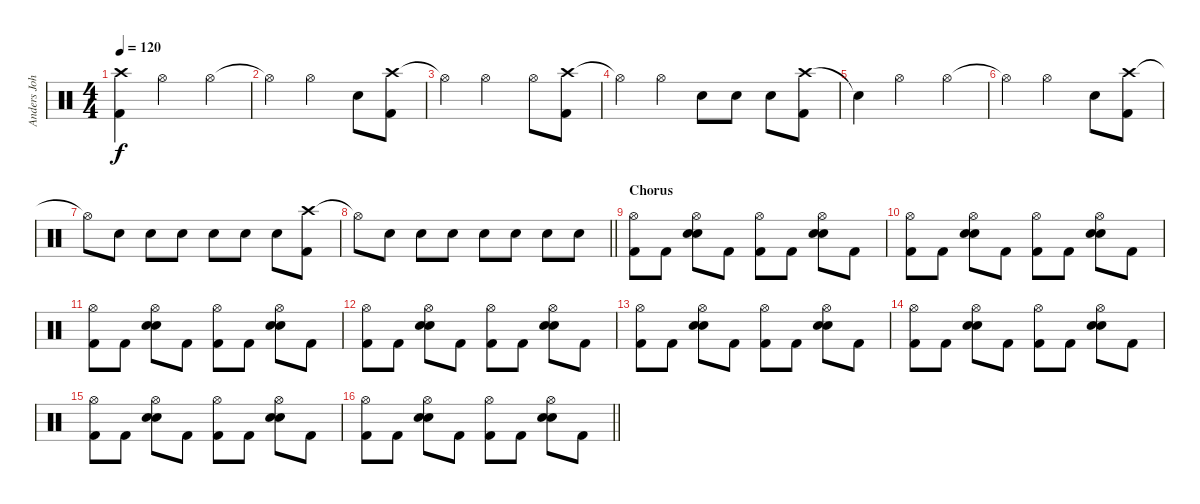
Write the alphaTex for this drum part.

\track ("Anders Johansson" "Anders Joh") {instrument percussion}
\staff {score}
\articulation defaults
\ts (4 4)
\tempo 120
\clef neutral
\ks c
("Crash high (hit)" "Kick (hit) 2").4{dy f} "Hi-Hat (open)".2 "Hi-Hat (open)".4 |
"Hi-Hat (open)"{t}.4 "Hi-Hat (open)".2 "Snare (hit) 2".8 ("Crash high (hit)" "Kick (hit) 2").8 |
"Hi-Hat (open)"{t}.4 "Hi-Hat (open)".2 "Hi-Hat (open)".8 ("Crash high (hit)" "Kick (hit) 2").8 |
"Hi-Hat (open)"{t}.4 "Hi-Hat (open)".4 "Snare (hit) 2".8 "Snare (hit) 2".8 "Snare (hit) 2".8 ("Crash high (hit)" "Kick (hit) 2").8 |
"Snare (hit)"{t}.4 "Hi-Hat (open)".2 "Hi-Hat (open)".4 |
"Hi-Hat (open)"{t}.4 "Hi-Hat (open)".2 "Snare (hit) 2".8 ("Crash high (hit)" "Kick (hit) 2").8 |
"Hi-Hat (open)"{t}.8 "Snare (hit) 2".8 "Snare (hit) 2".8 "Snare (hit) 2".8 "Snare (hit) 2".8 "Snare (hit) 2".8 "Snare (hit) 2".8 ("Crash high (hit)" "Kick (hit) 2").8 |
\barLineRight lightlight "Hi-Hat (open)"{t}.8 "Snare (hit) 2".8 "Snare (hit) 2".8 "Snare (hit) 2".8 "Snare (hit) 2".8 "Snare (hit) 2".8 "Snare (hit) 2".8 "Snare (hit) 2".8
|
\section ("" "Chorus")
("Hi-Hat (open)" "Kick (hit) 2").8 "Kick (hit) 2".8 ("Hi-Hat (open)" "Electric Snare (hit)" "Snare (hit) 2").8 "Kick (hit) 2".8 ("Hi-Hat (open)" "Kick (hit) 2").8 "Kick (hit) 2".8 ("Hi-Hat (open)" "Electric Snare (hit)" "Snare (hit) 2").8 "Kick (hit) 2".8 |
("Hi-Hat (open)" "Kick (hit) 2").8 "Kick (hit) 2".8 ("Hi-Hat (open)" "Electric Snare (hit)" "Snare (hit) 2").8 "Kick (hit) 2".8 ("Hi-Hat (open)" "Kick (hit) 2").8 "Kick (hit) 2".8 ("Hi-Hat (open)" "Electric Snare (hit)" "Snare (hit) 2").8 "Kick (hit) 2".8 |
("Hi-Hat (open)" "Kick (hit) 2").8 "Kick (hit) 2".8 ("Hi-Hat (open)" "Electric Snare (hit)" "Snare (hit) 2").8 "Kick (hit) 2".8 ("Hi-Hat (open)" "Kick (hit) 2").8 "Kick (hit) 2".8 ("Hi-Hat (open)" "Electric Snare (hit)" "Snare (hit) 2").8 "Kick (hit) 2".8 |
("Hi-Hat (open)" "Kick (hit) 2").8 "Kick (hit) 2".8 ("Hi-Hat (open)" "Electric Snare (hit)" "Snare (hit) 2").8 "Kick (hit) 2".8 ("Hi-Hat (open)" "Kick (hit) 2").8 "Kick (hit) 2".8 ("Hi-Hat (open)" "Electric Snare (hit)" "Snare (hit) 2").8 "Kick (hit) 2".8 |
("Hi-Hat (open)" "Kick (hit) 2").8 "Kick (hit) 2".8 ("Hi-Hat (open)" "Electric Snare (hit)" "Snare (hit) 2").8 "Kick (hit) 2".8 ("Hi-Hat (open)" "Kick (hit) 2").8 "Kick (hit) 2".8 ("Hi-Hat (open)" "Electric Snare (hit)" "Snare (hit) 2").8 "Kick (hit) 2".8 |
("Hi-Hat (open)" "Kick (hit) 2").8 "Kick (hit) 2".8 ("Hi-Hat (open)" "Electric Snare (hit)" "Snare (hit) 2").8 "Kick (hit) 2".8 ("Hi-Hat (open)" "Kick (hit) 2").8 "Kick (hit) 2".8 ("Hi-Hat (open)" "Electric Snare (hit)" "Snare (hit) 2").8 "Kick (hit) 2".8 |
("Hi-Hat (open)" "Kick (hit) 2").8 "Kick (hit) 2".8 ("Hi-Hat (open)" "Electric Snare (hit)" "Snare (hit) 2").8 "Kick (hit) 2".8 ("Hi-Hat (open)" "Kick (hit) 2").8 "Kick (hit) 2".8 ("Hi-Hat (open)" "Electric Snare (hit)" "Snare (hit) 2").8 "Kick (hit) 2".8 |
\barLineRight lightlight
("Hi-Hat (open)" "Kick (hit) 2").8 "Kick (hit) 2".8 ("Hi-Hat (open)" "Electric Snare (hit)" "Snare (hit) 2").8 "Kick (hit) 2".8 ("Hi-Hat (open)" "Kick (hit) 2").8 "Kick (hit) 2".8 ("Hi-Hat (open)" "Electric Snare (hit)" "Snare (hit) 2").8 "Kick (hit) 2".8
